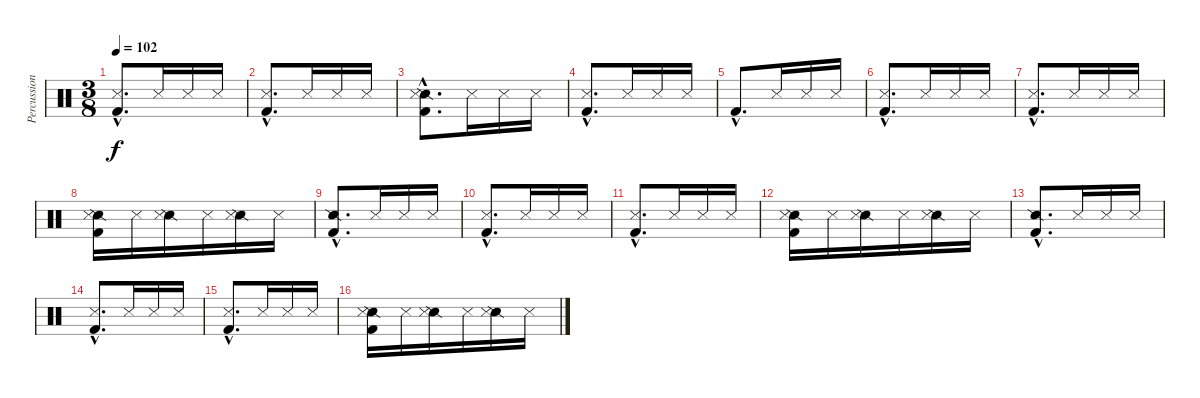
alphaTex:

\track ("Percussions" "Percussion") {instrument percussion}
\staff {score}
\articulation defaults
\ts (3 8)
\tempo 102
\clef neutral
\ks c
("Snare (side stick) 3"{hac} "Kick (hit) 2"{hac}).8{d dy f} "Snare (side stick) 3".16 "Snare (side stick) 3".16 "Snare (side stick) 3".16 |
("Snare (side stick) 3"{hac} "Kick (hit) 2"{hac}).8{d} "Snare (side stick) 3".16 "Snare (side stick) 3".16 "Snare (side stick) 3".16 |
("Snare (side stick) 2"{hac} "Snare (side stick) 3"{hac} "Kick (hit) 2"{hac}).8{d} "Snare (side stick) 3".16 "Snare (side stick) 3".16 "Snare (side stick) 3".16 |
("Snare (side stick) 3"{hac} "Kick (hit) 2"{hac}).8{d} "Snare (side stick) 3".16 "Snare (side stick) 3".16 "Snare (side stick) 3".16 |
"Kick (hit) 2"{hac}.8{d} "Snare (side stick) 3".16 "Snare (side stick) 3".16 "Snare (side stick) 3".16 |
("Snare (side stick) 3"{hac} "Kick (hit) 2"{hac}).8{d} "Snare (side stick) 3".16 "Snare (side stick) 3".16 "Snare (side stick) 3".16 |
("Snare (side stick) 3"{hac} "Kick (hit) 2"{hac}).8{d} "Snare (side stick) 3".16 "Snare (side stick) 3".16 "Snare (side stick) 3".16 |
("Snare (side stick) 2" "Snare (side stick) 3" "Kick (hit) 2").16 "Snare (side stick) 3".16 ("Snare (side stick) 2" "Snare (side stick) 3").16 "Snare (side stick) 3".16 ("Snare (side stick) 2" "Snare (side stick) 3").16 "Snare (side stick) 3".16 |
("Snare (side stick) 2"{hac} "Kick (hit) 2"{hac}).8{d} "Snare (side stick) 3".16 "Snare (side stick) 3".16 "Snare (side stick) 3".16 |
("Snare (side stick) 3"{hac} "Kick (hit) 2"{hac}).8{d} "Snare (side stick) 3".16 "Snare (side stick) 3".16 "Snare (side stick) 3".16 |
("Snare (side stick) 3"{hac} "Kick (hit) 2"{hac}).8{d} "Snare (side stick) 3".16 "Snare (side stick) 3".16 "Snare (side stick) 3".16 |
("Snare (side stick) 2" "Snare (side stick) 3" "Kick (hit) 2").16 "Snare (side stick) 3".16 ("Snare (side stick) 2" "Snare (side stick) 3").16 "Snare (side stick) 3".16 ("Snare (side stick) 2" "Snare (side stick) 3").16 "Snare (side stick) 3".16 |
("Snare (side stick) 2"{hac} "Kick (hit) 2"{hac}).8{d} "Snare (side stick) 3".16 "Snare (side stick) 3".16 "Snare (side stick) 3".16 |
("Snare (side stick) 3"{hac} "Kick (hit) 2"{hac}).8{d} "Snare (side stick) 3".16 "Snare (side stick) 3".16 "Snare (side stick) 3".16 |
("Snare (side stick) 3"{hac} "Kick (hit) 2"{hac}).8{d} "Snare (side stick) 3".16 "Snare (side stick) 3".16 "Snare (side stick) 3".16 |
("Snare (side stick) 2" "Snare (side stick) 3" "Kick (hit) 2").16 "Snare (side stick) 3".16 ("Snare (side stick) 2" "Snare (side stick) 3").16 "Snare (side stick) 3".16 ("Snare (side stick) 2" "Snare (side stick) 3").16 "Snare (side stick) 3".16
